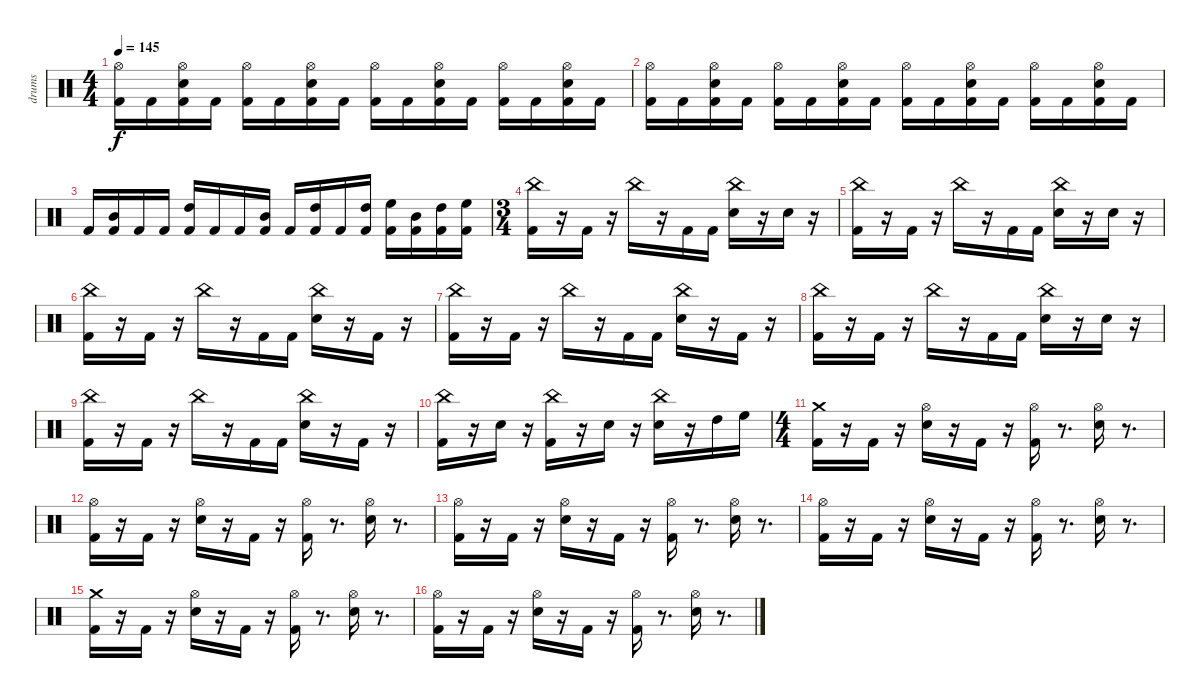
\track ("drums" "drums") {instrument percussion}
\staff {score}
\articulation defaults
\ts (4 4)
\tempo 145
\clef neutral
\ks c
("Hi-Hat (open)" "Kick (hit) 2").16{dy f} "Kick (hit) 2".16 ("Hi-Hat (open)" "Kick (hit) 2" "Snare (hit) 2").16 "Kick (hit) 2".16 ("Hi-Hat (open)" "Kick (hit) 2").16 "Kick (hit) 2".16 ("Hi-Hat (open)" "Kick (hit) 2" "Snare (hit) 2").16 "Kick (hit) 2".16 ("Hi-Hat (open)" "Kick (hit) 2").16 "Kick (hit) 2".16 ("Hi-Hat (open)" "Kick (hit) 2" "Snare (hit) 2").16 "Kick (hit) 2".16 ("Hi-Hat (open)" "Kick (hit) 2").16 "Kick (hit) 2".16 ("Hi-Hat (open)" "Kick (hit) 2" "Snare (hit) 2").16 "Kick (hit) 2".16 |
("Hi-Hat (open)" "Kick (hit) 2").16 "Kick (hit) 2".16 ("Hi-Hat (open)" "Kick (hit) 2" "Snare (hit) 2").16 "Kick (hit) 2".16 ("Hi-Hat (open)" "Kick (hit) 2").16 "Kick (hit) 2".16 ("Hi-Hat (open)" "Kick (hit) 2" "Snare (hit) 2").16 "Kick (hit) 2".16 ("Hi-Hat (open)" "Kick (hit) 2").16 "Kick (hit) 2".16 ("Hi-Hat (open)" "Kick (hit) 2" "Snare (hit) 2").16 "Kick (hit) 2".16 ("Hi-Hat (open)" "Kick (hit) 2").16 "Kick (hit) 2".16 ("Hi-Hat (open)" "Kick (hit) 2" "Snare (hit) 2").16 "Kick (hit) 2".16 |
"Kick (hit) 2".16 ("Mid Tom (hit)" "Kick (hit) 2").16 "Kick (hit) 2".16 "Kick (hit) 2".16 ("High Tom (hit)" "Kick (hit) 2").16 "Kick (hit) 2".16 "Kick (hit) 2".16 ("Mid Tom (hit)" "Kick (hit) 2").16 "Kick (hit) 2".16 ("High Tom (hit)" "Kick (hit) 2").16 "Kick (hit) 2".16 ("High Tom (hit)" "Kick (hit) 2").16 ("High Floor Tom (hit)" "Kick (hit) 2").16 ("Mid Tom (hit)" "Kick (hit) 2").16 ("High Tom (hit)" "Kick (hit) 2").16 ("High Floor Tom (hit)" "Kick (hit) 2").16 |
\ts (3 4)
("China (hit)" "Kick (hit) 2").16 r.16 "Kick (hit) 2".16 r.16 "China (hit)".16 r.16 "Kick (hit) 2".16 "Kick (hit) 2".16 ("China (hit)" "Snare (hit) 2").16 r.16 "Snare (hit) 2".16 r.16 |
("China (hit)" "Kick (hit) 2").16 r.16 "Kick (hit) 2".16 r.16 "China (hit)".16 r.16 "Kick (hit) 2".16 "Kick (hit) 2".16 ("China (hit)" "Snare (hit) 2").16 r.16 "Snare (hit) 2".16 r.16 |
("China (hit)" "Kick (hit) 2").16 r.16 "Kick (hit) 2".16 r.16 "China (hit)".16 r.16 "Kick (hit) 2".16 "Kick (hit) 2".16 ("China (hit)" "Snare (hit) 2").16 r.16 "Kick (hit) 2".16 r.16 |
("China (hit)" "Kick (hit) 2").16 r.16 "Kick (hit) 2".16 r.16 "China (hit)".16 r.16 "Kick (hit) 2".16 "Kick (hit) 2".16 ("China (hit)" "Snare (hit) 2").16 r.16 "Kick (hit) 2".16 r.16 |
("China (hit)" "Kick (hit) 2").16 r.16 "Kick (hit) 2".16 r.16 "China (hit)".16 r.16 "Kick (hit) 2".16 "Kick (hit) 2".16 ("China (hit)" "Snare (hit) 2").16 r.16 "Snare (hit) 2".16 r.16 |
("China (hit)" "Kick (hit) 2").16 r.16 "Kick (hit) 2".16 r.16 "China (hit)".16 r.16 "Kick (hit) 2".16 "Kick (hit) 2".16 ("China (hit)" "Snare (hit) 2").16 r.16 "Kick (hit) 2".16 r.16 |
("China (hit)" "Kick (hit) 2").16 r.16 "Snare (hit) 2".16 r.16 ("Kick (hit) 2" "China (hit)").16 r.16 "Snare (hit) 2".16 r.16 ("China (hit)" "Snare (hit) 2").16 r.16 "High Tom (hit)".16 "High Floor Tom (hit)".16 |
\ts (4 4)
("Crash medium (hit)" "Kick (hit) 2").16 r.16 "Kick (hit) 2".16 r.16 ("Hi-Hat (open)" "Snare (hit) 2").16 r.16 "Kick (hit) 2".16 r.16 ("Hi-Hat (open)" "Kick (hit) 2").16 r.8{d} ("Hi-Hat (open)" "Snare (hit) 2").16 r.8{d} |
("Hi-Hat (open)" "Kick (hit) 2").16 r.16 "Kick (hit) 2".16 r.16 ("Hi-Hat (open)" "Snare (hit) 2").16 r.16 "Kick (hit) 2".16 r.16 ("Hi-Hat (open)" "Kick (hit) 2").16 r.8{d} ("Hi-Hat (open)" "Snare (hit) 2").16 r.8{d} |
("Hi-Hat (open)" "Kick (hit) 2").16 r.16 "Kick (hit) 2".16 r.16 ("Hi-Hat (open)" "Snare (hit) 2").16 r.16 "Kick (hit) 2".16 r.16 ("Hi-Hat (open)" "Kick (hit) 2").16 r.8{d} ("Hi-Hat (open)" "Snare (hit) 2").16 r.8{d} |
("Hi-Hat (open)" "Kick (hit) 2").16 r.16 "Kick (hit) 2".16 r.16 ("Hi-Hat (open)" "Snare (hit) 2").16 r.16 "Kick (hit) 2".16 r.16 ("Hi-Hat (open)" "Kick (hit) 2").16 r.8{d} ("Hi-Hat (open)" "Snare (hit) 2").16 r.8{d} |
("Crash medium (hit)" "Kick (hit) 2").16 r.16 "Kick (hit) 2".16 r.16 ("Hi-Hat (open)" "Snare (hit) 2").16 r.16 "Kick (hit) 2".16 r.16 ("Hi-Hat (open)" "Kick (hit) 2").16 r.8{d} ("Hi-Hat (open)" "Snare (hit) 2").16 r.8{d} |
("Hi-Hat (open)" "Kick (hit) 2").16 r.16 "Kick (hit) 2".16 r.16 ("Hi-Hat (open)" "Snare (hit) 2").16 r.16 "Kick (hit) 2".16 r.16 ("Hi-Hat (open)" "Kick (hit) 2").16 r.8{d} ("Hi-Hat (open)" "Snare (hit) 2").16 r.8{d}
